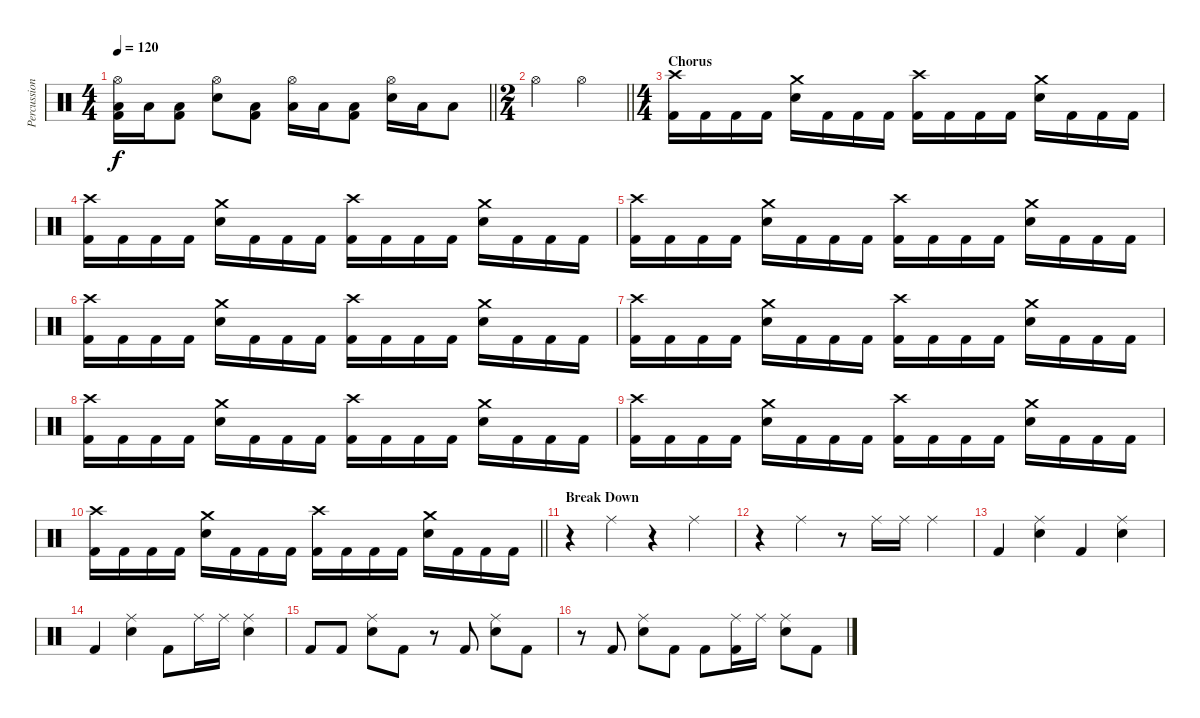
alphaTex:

\track ("Percussion" "Percussion") {instrument percussion}
\staff {score}
\articulation defaults
\ts (4 4)
\tempo 120
\clef neutral
\barLineRight lightlight
\ks c
("Hi-Hat (open)" "Low Floor Tom (hit)" "Kick (hit) 2").16{dy f} "Low Floor Tom (hit)".16 ("Low Floor Tom (hit)" "Kick (hit) 2").8 ("Hi-Hat (open)" "Electric Snare (hit)").8 ("Low Floor Tom (hit)" "Kick (hit) 2").8 ("Hi-Hat (open)" "Low Floor Tom (hit)").16 "Low Floor Tom (hit)".16 ("Low Floor Tom (hit)" "Kick (hit) 2").8 ("Hi-Hat (open)" "Electric Snare (hit)").16 "Low Floor Tom (hit)".16 "Low Floor Tom (hit)".8 |
\ts (2 4)
\barLineRight lightlight "Hi-Hat (open)".4 "Hi-Hat (open)".4
|
\ts (4 4)
\section ("" "Chorus")
("Crash high (hit)" "Kick (hit) 2").16 "Kick (hit) 2".16 "Kick (hit) 2".16 "Kick (hit) 2".16 ("Crash medium (hit)" "Electric Snare (hit)").16 "Kick (hit) 2".16 "Kick (hit) 2".16 "Kick (hit) 2".16 ("Crash high (hit)" "Kick (hit) 2").16 "Kick (hit) 2".16 "Kick (hit) 2".16 "Kick (hit) 2".16 ("Crash medium (hit)" "Electric Snare (hit)").16 "Kick (hit) 2".16 "Kick (hit) 2".16 "Kick (hit) 2".16 |
("Crash high (hit)" "Kick (hit) 2").16 "Kick (hit) 2".16 "Kick (hit) 2".16 "Kick (hit) 2".16 ("Crash medium (hit)" "Electric Snare (hit)").16 "Kick (hit) 2".16 "Kick (hit) 2".16 "Kick (hit) 2".16 ("Crash high (hit)" "Kick (hit) 2").16 "Kick (hit) 2".16 "Kick (hit) 2".16 "Kick (hit) 2".16 ("Crash medium (hit)" "Electric Snare (hit)").16 "Kick (hit) 2".16 "Kick (hit) 2".16 "Kick (hit) 2".16 |
("Crash high (hit)" "Kick (hit) 2").16 "Kick (hit) 2".16 "Kick (hit) 2".16 "Kick (hit) 2".16 ("Crash medium (hit)" "Electric Snare (hit)").16 "Kick (hit) 2".16 "Kick (hit) 2".16 "Kick (hit) 2".16 ("Crash high (hit)" "Kick (hit) 2").16 "Kick (hit) 2".16 "Kick (hit) 2".16 "Kick (hit) 2".16 ("Crash medium (hit)" "Electric Snare (hit)").16 "Kick (hit) 2".16 "Kick (hit) 2".16 "Kick (hit) 2".16 |
("Crash high (hit)" "Kick (hit) 2").16 "Kick (hit) 2".16 "Kick (hit) 2".16 "Kick (hit) 2".16 ("Crash medium (hit)" "Electric Snare (hit)").16 "Kick (hit) 2".16 "Kick (hit) 2".16 "Kick (hit) 2".16 ("Crash high (hit)" "Kick (hit) 2").16 "Kick (hit) 2".16 "Kick (hit) 2".16 "Kick (hit) 2".16 ("Crash medium (hit)" "Electric Snare (hit)").16 "Kick (hit) 2".16 "Kick (hit) 2".16 "Kick (hit) 2".16 |
("Crash high (hit)" "Kick (hit) 2").16 "Kick (hit) 2".16 "Kick (hit) 2".16 "Kick (hit) 2".16 ("Crash medium (hit)" "Electric Snare (hit)").16 "Kick (hit) 2".16 "Kick (hit) 2".16 "Kick (hit) 2".16 ("Crash high (hit)" "Kick (hit) 2").16 "Kick (hit) 2".16 "Kick (hit) 2".16 "Kick (hit) 2".16 ("Crash medium (hit)" "Electric Snare (hit)").16 "Kick (hit) 2".16 "Kick (hit) 2".16 "Kick (hit) 2".16 |
("Crash high (hit)" "Kick (hit) 2").16 "Kick (hit) 2".16 "Kick (hit) 2".16 "Kick (hit) 2".16 ("Crash medium (hit)" "Electric Snare (hit)").16 "Kick (hit) 2".16 "Kick (hit) 2".16 "Kick (hit) 2".16 ("Crash high (hit)" "Kick (hit) 2").16 "Kick (hit) 2".16 "Kick (hit) 2".16 "Kick (hit) 2".16 ("Crash medium (hit)" "Electric Snare (hit)").16 "Kick (hit) 2".16 "Kick (hit) 2".16 "Kick (hit) 2".16 |
("Crash high (hit)" "Kick (hit) 2").16 "Kick (hit) 2".16 "Kick (hit) 2".16 "Kick (hit) 2".16 ("Crash medium (hit)" "Electric Snare (hit)").16 "Kick (hit) 2".16 "Kick (hit) 2".16 "Kick (hit) 2".16 ("Crash high (hit)" "Kick (hit) 2").16 "Kick (hit) 2".16 "Kick (hit) 2".16 "Kick (hit) 2".16 ("Crash medium (hit)" "Electric Snare (hit)").16 "Kick (hit) 2".16 "Kick (hit) 2".16 "Kick (hit) 2".16 |
\barLineRight lightlight
("Crash high (hit)" "Kick (hit) 2").16 "Kick (hit) 2".16 "Kick (hit) 2".16 "Kick (hit) 2".16 ("Crash medium (hit)" "Electric Snare (hit)").16 "Kick (hit) 2".16 "Kick (hit) 2".16 "Kick (hit) 2".16 ("Crash high (hit)" "Kick (hit) 2").16 "Kick (hit) 2".16 "Kick (hit) 2".16 "Kick (hit) 2".16 ("Crash medium (hit)" "Electric Snare (hit)").16 "Kick (hit) 2".16 "Kick (hit) 2".16 "Kick (hit) 2".16 |
\section ("" "Break Down")
r.4 "Ride (middle)".4 r.4 "Ride (middle)".4 |
r.4 "Ride (middle)".4 r.8 "Ride (middle)".16 "Ride (middle)".16 "Ride (middle)".4 |
"Kick (hit) 2".4 ("Ride (middle)" "Electric Snare (hit)").4 "Kick (hit) 2".4 ("Ride (middle)" "Electric Snare (hit)").4 |
"Kick (hit) 2".4 ("Ride (middle)" "Electric Snare (hit)").4 "Kick (hit) 2".8 "Ride (middle)".16 "Ride (middle)".16 ("Ride (middle)" "Electric Snare (hit)").4 |
"Kick (hit) 2".8 "Kick (hit) 2".8 ("Ride (middle)" "Electric Snare (hit)").8 "Kick (hit) 2".8 r.8 "Kick (hit) 2".8 ("Ride (middle)" "Electric Snare (hit)").8 "Kick (hit) 2".8 |
r.8 "Kick (hit) 2".8 ("Ride (middle)" "Electric Snare (hit)").8 "Kick (hit) 2".8 "Kick (hit) 2".8 ("Ride (middle)" "Kick (hit) 2").16 "Ride (middle)".16 ("Ride (middle)" "Electric Snare (hit)").8 "Kick (hit) 2".8
